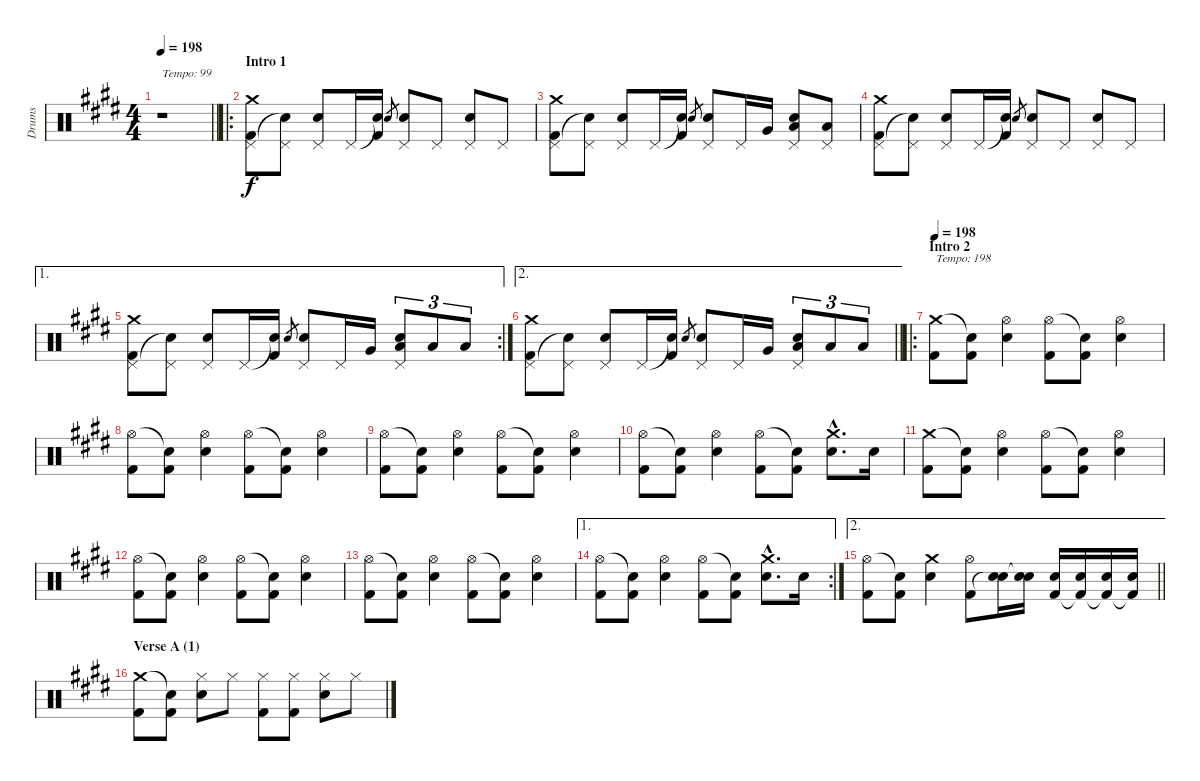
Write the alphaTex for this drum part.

\track ("Drums" "Drums") {instrument percussion}
\staff {score}
\articulation defaults
\ts (4 4)
\tempo 198
\tempo 99
\tempo 198
\clef neutral
\barLineRight lightlight
\ks c#minor
r.1{txt "Tempo: 99" dy f} |
\ro
\section ("" "Intro 1")
("Crash medium (hit)" "Pedal Hi-Hat (hit)" "Kick (hit) 2").8 ("Pedal Hi-Hat (hit)" "Snare (hit)"{t}).8 ("Pedal Hi-Hat (hit)" "Hand Clap (hit)").8 "Pedal Hi-Hat (hit)".16 ("Snare (hit)"{t} "Kick (hit) 2").16 "Electric Snare (hit)".8{gr} ("Pedal Hi-Hat (hit)" "Electric Snare (hit)").8 "Pedal Hi-Hat (hit)".8 ("Pedal Hi-Hat (hit)" "Hand Clap (hit)").8 "Pedal Hi-Hat (hit)".8 |
("Crash medium (hit)" "Pedal Hi-Hat (hit)" "Kick (hit) 2").8 ("Pedal Hi-Hat (hit)" "Snare (hit)"{t}).8 ("Pedal Hi-Hat (hit)" "Hand Clap (hit)").8 "Pedal Hi-Hat (hit)".16 ("Snare (hit)"{t} "Kick (hit) 2").16 "Electric Snare (hit)".8{gr} ("Pedal Hi-Hat (hit)" "Electric Snare (hit)").8 "Pedal Hi-Hat (hit)".16 "Very Low Tom (hit)".16 ("Pedal Hi-Hat (hit)" "Hand Clap (hit)" "Low Floor Tom (hit)").8 ("Pedal Hi-Hat (hit)" "Low Floor Tom (hit)").8 |
("Crash medium (hit)" "Pedal Hi-Hat (hit)" "Kick (hit) 2").8 ("Pedal Hi-Hat (hit)" "Snare (hit)"{t}).8 ("Pedal Hi-Hat (hit)" "Hand Clap (hit)").8 "Pedal Hi-Hat (hit)".16 ("Snare (hit)"{t} "Kick (hit) 2").16 "Electric Snare (hit)".8{gr} ("Pedal Hi-Hat (hit)" "Electric Snare (hit)").8 "Pedal Hi-Hat (hit)".8 ("Pedal Hi-Hat (hit)" "Hand Clap (hit)").8 "Pedal Hi-Hat (hit)".8 |
\ae 1
\rc 2
("Crash medium (hit)" "Pedal Hi-Hat (hit)" "Kick (hit) 2").8 ("Pedal Hi-Hat (hit)" "Snare (hit)"{t}).8 ("Pedal Hi-Hat (hit)" "Hand Clap (hit)").8 "Pedal Hi-Hat (hit)".16 ("Snare (hit)"{t} "Kick (hit) 2").16 "Electric Snare (hit)".8{gr} ("Pedal Hi-Hat (hit)" "Electric Snare (hit)").8 "Pedal Hi-Hat (hit)".16 "Very Low Tom (hit)".16 ("Pedal Hi-Hat (hit)" "Hand Clap (hit)" "Low Floor Tom (hit)").8{tu (3 2)} "Low Floor Tom (hit)".8{tu (3 2)} "Low Floor Tom (hit)".8{tu (3 2)} |
\ae 2
\barLineRight lightlight
("Crash medium (hit)" "Pedal Hi-Hat (hit)" "Kick (hit) 2").8 ("Pedal Hi-Hat (hit)" "Snare (hit)"{t}).8 ("Pedal Hi-Hat (hit)" "Hand Clap (hit)").8 "Pedal Hi-Hat (hit)".16 ("Snare (hit)"{t} "Kick (hit) 2").16 "Electric Snare (hit)".8{gr} ("Pedal Hi-Hat (hit)" "Electric Snare (hit)").8 "Pedal Hi-Hat (hit)".16 "Very Low Tom (hit)".16 ("Pedal Hi-Hat (hit)" "Hand Clap (hit)" "Low Floor Tom (hit)").8{tu (3 2)} "Low Floor Tom (hit)".8{tu (3 2)} "Low Floor Tom (hit)".8{tu (3 2)} |
\ro
\section ("" "Intro 2")
\tempo 198
("Crash medium (hit)" "Kick (hit) 2").8{txt "Tempo: 198"} ("Snare (hit)"{t} "Kick (hit) 2").8 ("Hi-Hat (open)" "Electric Snare (hit)").4 ("Hi-Hat (open)" "Kick (hit) 2").8 ("Snare (hit)"{t} "Kick (hit) 2").8 ("Hi-Hat (open)" "Electric Snare (hit)").4 |
("Hi-Hat (open)" "Kick (hit) 2").8 ("Snare (hit)"{t} "Kick (hit) 2").8 ("Hi-Hat (open)" "Electric Snare (hit)").4 ("Hi-Hat (open)" "Kick (hit) 2").8 ("Snare (hit)"{t} "Kick (hit) 2").8 ("Hi-Hat (open)" "Electric Snare (hit)").4 |
("Hi-Hat (open)" "Kick (hit) 2").8 ("Snare (hit)"{t} "Kick (hit) 2").8 ("Hi-Hat (open)" "Electric Snare (hit)").4 ("Hi-Hat (open)" "Kick (hit) 2").8 ("Snare (hit)"{t} "Kick (hit) 2").8 ("Hi-Hat (open)" "Electric Snare (hit)").4 |
("Hi-Hat (open)" "Kick (hit) 2").8 ("Snare (hit)"{t} "Kick (hit) 2").8 ("Hi-Hat (open)" "Electric Snare (hit)").4 ("Hi-Hat (open)" "Kick (hit) 2").8 ("Snare (hit)"{t} "Kick (hit) 2").8 ("Crash medium (hit)"{hac} "Electric Snare (hit)"{hac}).8{d} "Electric Snare (hit)".16 |
("Crash medium (hit)" "Kick (hit) 2").8 ("Snare (hit)"{t} "Kick (hit) 2").8 ("Hi-Hat (open)" "Electric Snare (hit)").4 ("Hi-Hat (open)" "Kick (hit) 2").8 ("Snare (hit)"{t} "Kick (hit) 2").8 ("Hi-Hat (open)" "Electric Snare (hit)").4 |
("Hi-Hat (open)" "Kick (hit) 2").8 ("Snare (hit)"{t} "Kick (hit) 2").8 ("Hi-Hat (open)" "Electric Snare (hit)").4 ("Hi-Hat (open)" "Kick (hit) 2").8 ("Snare (hit)"{t} "Kick (hit) 2").8 ("Hi-Hat (open)" "Electric Snare (hit)").4 |
("Hi-Hat (open)" "Kick (hit) 2").8 ("Snare (hit)"{t} "Kick (hit) 2").8 ("Hi-Hat (open)" "Electric Snare (hit)").4 ("Hi-Hat (open)" "Kick (hit) 2").8 ("Snare (hit)"{t} "Kick (hit) 2").8 ("Hi-Hat (open)" "Electric Snare (hit)").4 |
\ae 1
\rc 2
("Hi-Hat (open)" "Kick (hit) 2").8 ("Snare (hit)"{t} "Kick (hit) 2").8 ("Hi-Hat (open)" "Electric Snare (hit)").4 ("Hi-Hat (open)" "Kick (hit) 2").8 ("Snare (hit)"{t} "Kick (hit) 2").8 ("Crash medium (hit)"{hac} "Electric Snare (hit)"{hac}).8{d} "Electric Snare (hit)".16 |
\ae 2
\barLineRight lightlight
("Hi-Hat (open)" "Kick (hit) 2").8 ("Snare (hit)"{t} "Kick (hit) 2").8 ("Crash medium (hit)" "Electric Snare (hit)").4 ("Hi-Hat (open)" "Kick (hit) 2").8 ("Electric Snare (hit)" "Snare (hit)"{t}).16 ("Electric Snare (hit)" "Snare (hit)"{t}).16 ("Electric Snare (hit)" "Kick (hit) 2").16 ("Electric Snare (hit)" "Kick (hit) 2"{t}).16 ("Electric Snare (hit)" "Kick (hit) 2"{t}).16 ("Electric Snare (hit)" "Kick (hit) 2"{t}).16 |
\section ("" "Verse A (1)")
("Crash medium (hit)" "Kick (hit) 2").8 ("Snare (hit)"{t} "Kick (hit) 2").8 ("Hi-Hat (closed)" "Electric Snare (hit)").8 "Hi-Hat (closed)".8 ("Hi-Hat (closed)" "Kick (hit) 2").8 ("Hi-Hat (closed)" "Kick (hit) 2").8 ("Hi-Hat (closed)" "Electric Snare (hit)").8 "Hi-Hat (closed)".8
